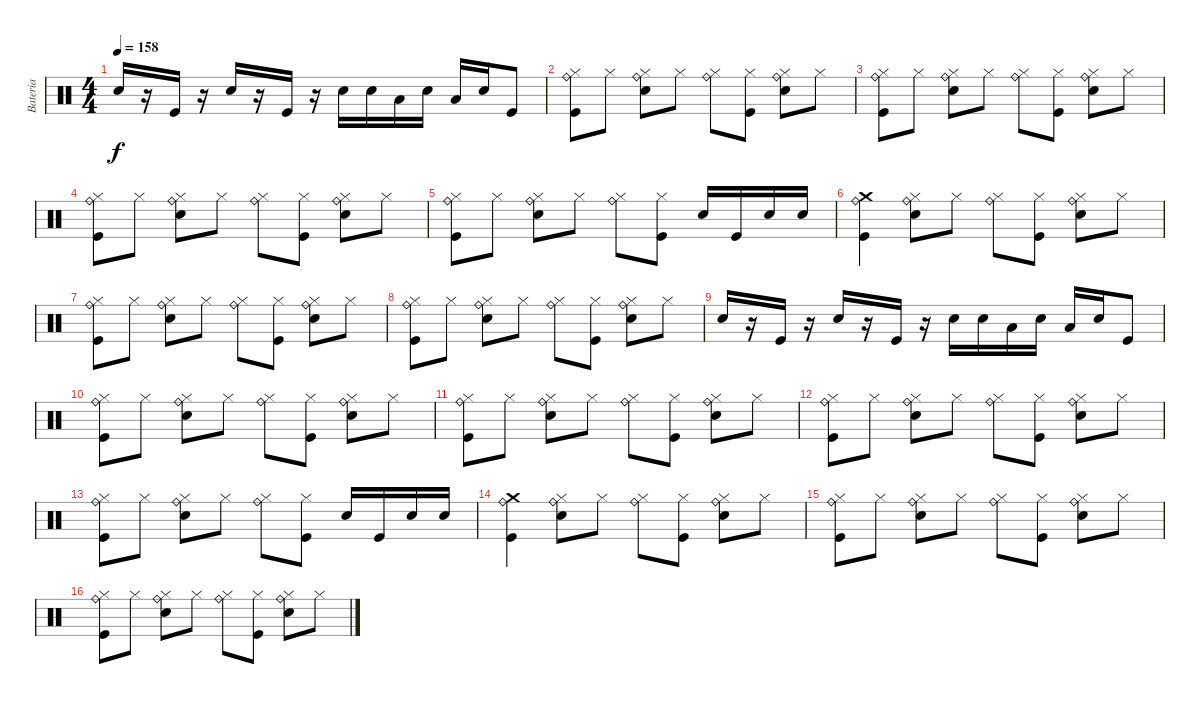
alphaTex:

\track ("Bateria" "Bateria") {instrument percussion}
\staff {score}
\articulation defaults
\ts (4 4)
\tempo 158
\clef neutral
\ks c "Electric Snare (hit)".16{dy f}
r.16 "Kick (hit)".16 r.16 "Electric Snare (hit)".16 r.16 "Kick (hit)".16 r.16 "Electric Snare (hit)".16 "Electric Snare (hit)".16 "Low Tom (hit)".16 "Electric Snare (hit)".16 "Low Tom (hit)".16 "Electric Snare (hit)".16 "Kick (hit)".8 |
("Kick (hit)" "Hi-Hat (closed)" "Ride (bell)").8 "Hi-Hat (closed)".8 ("Electric Snare (hit)" "Hi-Hat (closed)" "Ride (bell)").8 "Hi-Hat (closed)".8 ("Hi-Hat (closed)" "Ride (bell)").8 ("Kick (hit)" "Hi-Hat (closed)").8 ("Electric Snare (hit)" "Hi-Hat (closed)" "Ride (bell)").8 "Hi-Hat (closed)".8 |
("Kick (hit)" "Hi-Hat (closed)" "Ride (bell)").8 "Hi-Hat (closed)".8 ("Electric Snare (hit)" "Hi-Hat (closed)" "Ride (bell)").8 "Hi-Hat (closed)".8 ("Hi-Hat (closed)" "Ride (bell)").8 ("Kick (hit)" "Hi-Hat (closed)").8 ("Electric Snare (hit)" "Hi-Hat (closed)" "Ride (bell)").8 "Hi-Hat (closed)".8 |
("Kick (hit)" "Hi-Hat (closed)" "Ride (bell)").8 "Hi-Hat (closed)".8 ("Electric Snare (hit)" "Hi-Hat (closed)" "Ride (bell)").8 "Hi-Hat (closed)".8 ("Hi-Hat (closed)" "Ride (bell)").8 ("Kick (hit)" "Hi-Hat (closed)").8 ("Electric Snare (hit)" "Hi-Hat (closed)" "Ride (bell)").8 "Hi-Hat (closed)".8 |
("Kick (hit)" "Hi-Hat (closed)" "Ride (bell)").8 "Hi-Hat (closed)".8 ("Electric Snare (hit)" "Hi-Hat (closed)" "Ride (bell)").8 "Hi-Hat (closed)".8 ("Hi-Hat (closed)" "Ride (bell)").8 ("Kick (hit)" "Hi-Hat (closed)").8 "Electric Snare (hit)".16 "Kick (hit)".16 "Snare (hit) 2".16 "Electric Snare (hit)".16 |
("Kick (hit)" "Crash medium (hit)" "Ride (bell)").4 ("Electric Snare (hit)" "Hi-Hat (closed)" "Ride (bell)").8 "Hi-Hat (closed)".8 ("Hi-Hat (closed)" "Ride (bell)").8 ("Kick (hit)" "Hi-Hat (closed)").8 ("Electric Snare (hit)" "Hi-Hat (closed)" "Ride (bell)").8 "Hi-Hat (closed)".8 |
("Kick (hit)" "Hi-Hat (closed)" "Ride (bell)").8 "Hi-Hat (closed)".8 ("Electric Snare (hit)" "Hi-Hat (closed)" "Ride (bell)").8 "Hi-Hat (closed)".8 ("Hi-Hat (closed)" "Ride (bell)").8 ("Kick (hit)" "Hi-Hat (closed)").8 ("Electric Snare (hit)" "Hi-Hat (closed)" "Ride (bell)").8 "Hi-Hat (closed)".8 |
("Kick (hit)" "Hi-Hat (closed)" "Ride (bell)").8 "Hi-Hat (closed)".8 ("Electric Snare (hit)" "Hi-Hat (closed)" "Ride (bell)").8 "Hi-Hat (closed)".8 ("Hi-Hat (closed)" "Ride (bell)").8 ("Kick (hit)" "Hi-Hat (closed)").8 ("Electric Snare (hit)" "Hi-Hat (closed)" "Ride (bell)").8 "Hi-Hat (closed)".8 |
"Electric Snare (hit)".16 r.16 "Kick (hit)".16 r.16 "Electric Snare (hit)".16 r.16 "Kick (hit)".16 r.16 "Electric Snare (hit)".16 "Electric Snare (hit)".16 "Low Tom (hit)".16 "Electric Snare (hit)".16 "Low Tom (hit)".16 "Electric Snare (hit)".16 "Kick (hit)".8 |
("Kick (hit)" "Hi-Hat (closed)" "Ride (bell)").8 "Hi-Hat (closed)".8 ("Electric Snare (hit)" "Hi-Hat (closed)" "Ride (bell)").8 "Hi-Hat (closed)".8 ("Hi-Hat (closed)" "Ride (bell)").8 ("Kick (hit)" "Hi-Hat (closed)").8 ("Electric Snare (hit)" "Hi-Hat (closed)" "Ride (bell)").8 "Hi-Hat (closed)".8 |
("Kick (hit)" "Hi-Hat (closed)" "Ride (bell)").8 "Hi-Hat (closed)".8 ("Electric Snare (hit)" "Hi-Hat (closed)" "Ride (bell)").8 "Hi-Hat (closed)".8 ("Hi-Hat (closed)" "Ride (bell)").8 ("Kick (hit)" "Hi-Hat (closed)").8 ("Electric Snare (hit)" "Hi-Hat (closed)" "Ride (bell)").8 "Hi-Hat (closed)".8 |
("Kick (hit)" "Hi-Hat (closed)" "Ride (bell)").8 "Hi-Hat (closed)".8 ("Electric Snare (hit)" "Hi-Hat (closed)" "Ride (bell)").8 "Hi-Hat (closed)".8 ("Hi-Hat (closed)" "Ride (bell)").8 ("Kick (hit)" "Hi-Hat (closed)").8 ("Electric Snare (hit)" "Hi-Hat (closed)" "Ride (bell)").8 "Hi-Hat (closed)".8 |
("Kick (hit)" "Hi-Hat (closed)" "Ride (bell)").8 "Hi-Hat (closed)".8 ("Electric Snare (hit)" "Hi-Hat (closed)" "Ride (bell)").8 "Hi-Hat (closed)".8 ("Hi-Hat (closed)" "Ride (bell)").8 ("Kick (hit)" "Hi-Hat (closed)").8 "Electric Snare (hit)".16 "Kick (hit)".16 "Snare (hit) 2".16 "Electric Snare (hit)".16 |
("Kick (hit)" "Crash medium (hit)" "Ride (bell)").4 ("Electric Snare (hit)" "Hi-Hat (closed)" "Ride (bell)").8 "Hi-Hat (closed)".8 ("Hi-Hat (closed)" "Ride (bell)").8 ("Kick (hit)" "Hi-Hat (closed)").8 ("Electric Snare (hit)" "Hi-Hat (closed)" "Ride (bell)").8 "Hi-Hat (closed)".8 |
("Kick (hit)" "Hi-Hat (closed)" "Ride (bell)").8 "Hi-Hat (closed)".8 ("Electric Snare (hit)" "Hi-Hat (closed)" "Ride (bell)").8 "Hi-Hat (closed)".8 ("Hi-Hat (closed)" "Ride (bell)").8 ("Kick (hit)" "Hi-Hat (closed)").8 ("Electric Snare (hit)" "Hi-Hat (closed)" "Ride (bell)").8 "Hi-Hat (closed)".8 |
("Kick (hit)" "Hi-Hat (closed)" "Ride (bell)").8 "Hi-Hat (closed)".8 ("Electric Snare (hit)" "Hi-Hat (closed)" "Ride (bell)").8 "Hi-Hat (closed)".8 ("Hi-Hat (closed)" "Ride (bell)").8 ("Kick (hit)" "Hi-Hat (closed)").8 ("Electric Snare (hit)" "Hi-Hat (closed)" "Ride (bell)").8 "Hi-Hat (closed)".8
